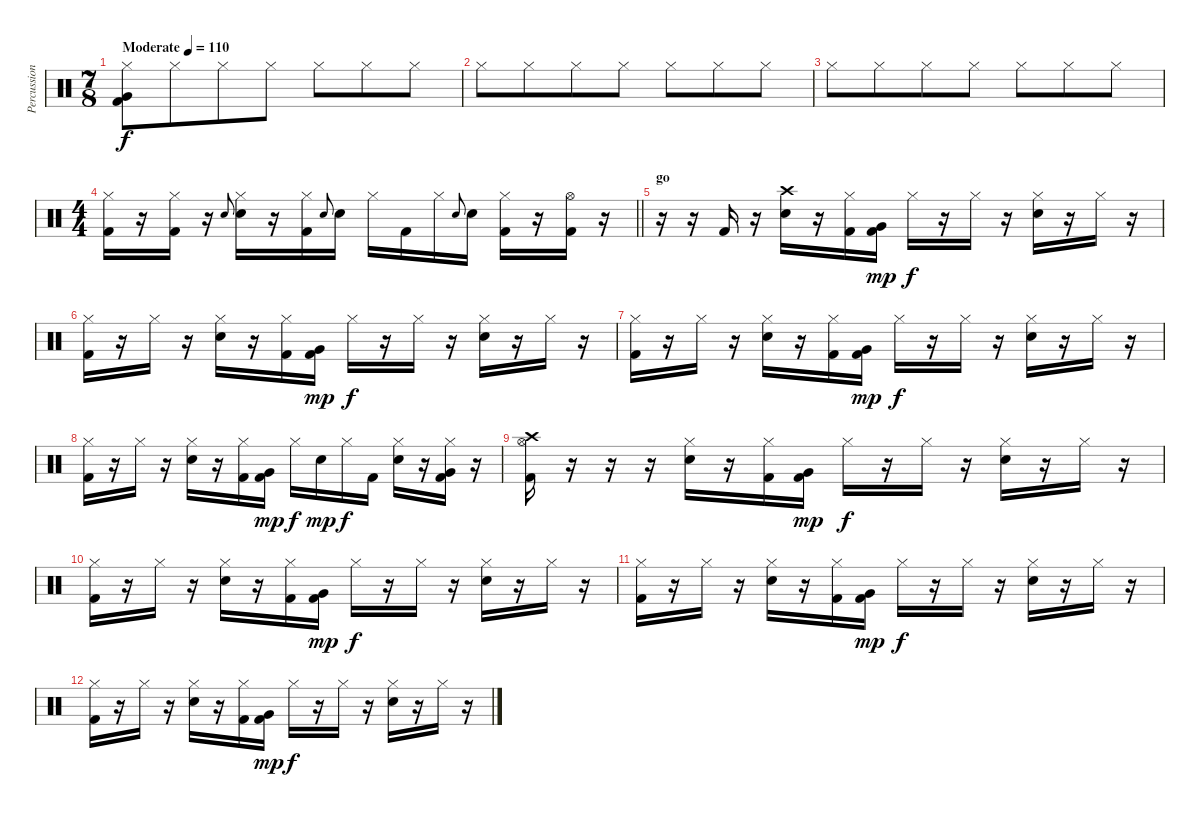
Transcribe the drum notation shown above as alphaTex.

\track ("Percussion" "Percussion") {instrument percussion}
\staff {score}
\articulation defaults
\ts (7 8)
\tempo (110 "Moderate")
\clef neutral
\ks c
("Hi-Hat (closed)" "Very Low Tom (hit)" "Kick (hit) 2").8{dy f} "Hi-Hat (closed)".8 "Hi-Hat (closed)".8 "Hi-Hat (closed)".8 "Hi-Hat (closed)".8 "Hi-Hat (closed)".8 "Hi-Hat (closed)".8 |
"Hi-Hat (closed)".8 "Hi-Hat (closed)".8 "Hi-Hat (closed)".8 "Hi-Hat (closed)".8 "Hi-Hat (closed)".8 "Hi-Hat (closed)".8 "Hi-Hat (closed)".8 |
"Hi-Hat (closed)".8 "Hi-Hat (closed)".8 "Hi-Hat (closed)".8 "Hi-Hat (closed)".8 "Hi-Hat (closed)".8 "Hi-Hat (closed)".8 "Hi-Hat (closed)".8 |
\ts (4 4)
\barLineRight lightlight
("Hi-Hat (closed)" "Kick (hit) 2").16 r.16 ("Hi-Hat (closed)" "Kick (hit) 2").16 r.16 "Electric Snare (hit)".8{gr onbeat} ("Hi-Hat (closed)" "Snare (hit) 2").16 r.16 ("Hi-Hat (closed)" "Kick (hit) 2").16 "Electric Snare (hit)".8{gr onbeat} "Snare (hit) 2".16 "Hi-Hat (closed)".16 "Kick (hit) 2".16 "Hi-Hat (closed)".16 "Electric Snare (hit)".8{gr onbeat} "Snare (hit) 2".16 ("Hi-Hat (closed)" "Kick (hit) 2").16 r.16 ("Hi-Hat (open)" "Kick (hit) 2").16 r.16 |
\section ("" "go")
r.16 r.16 "Kick (hit) 2".16 r.16 ("Crash high (hit)" "Electric Snare (hit)").16 r.16 ("Hi-Hat (closed)" "Kick (hit) 2").16 ("Very Low Tom (hit)" "Kick (hit) 2").16{dy mp} "Hi-Hat (closed)".16{dy f} r.16 "Hi-Hat (closed)".16 r.16 ("Hi-Hat (closed)" "Electric Snare (hit)").16 r.16 "Hi-Hat (closed)".16 r.16 |
("Hi-Hat (closed)" "Kick (hit) 2").16 r.16 "Hi-Hat (closed)".16 r.16 ("Hi-Hat (closed)" "Electric Snare (hit)").16 r.16 ("Hi-Hat (closed)" "Kick (hit) 2").16 ("Very Low Tom (hit)" "Kick (hit) 2").16{dy mp} "Hi-Hat (closed)".16{dy f} r.16 "Hi-Hat (closed)".16 r.16 ("Hi-Hat (closed)" "Electric Snare (hit)").16 r.16 "Hi-Hat (closed)".16 r.16 |
("Hi-Hat (closed)" "Kick (hit) 2").16 r.16 "Hi-Hat (closed)".16 r.16 ("Hi-Hat (closed)" "Electric Snare (hit)").16 r.16 ("Hi-Hat (closed)" "Kick (hit) 2").16 ("Very Low Tom (hit)" "Kick (hit) 2").16{dy mp} "Hi-Hat (closed)".16{dy f} r.16 "Hi-Hat (closed)".16 r.16 ("Hi-Hat (closed)" "Electric Snare (hit)").16 r.16 "Hi-Hat (closed)".16 r.16 |
("Hi-Hat (closed)" "Kick (hit) 2").16 r.16 "Hi-Hat (closed)".16 r.16 ("Hi-Hat (closed)" "Electric Snare (hit)").16 r.16 ("Hi-Hat (closed)" "Kick (hit) 2").16 ("Very Low Tom (hit)" "Kick (hit) 2").16{dy mp} "Hi-Hat (closed)".16{dy f} "Electric Snare (hit)".16{dy mp} "Hi-Hat (closed)".16{dy f} "Kick (hit) 2".16 ("Hi-Hat (closed)" "Electric Snare (hit)").16 r.16 ("Hi-Hat (closed)" "Very Low Tom (hit)" "Kick (hit) 2").16 r.16 |
("Crash high (hit)" "Hi-Hat (open)" "Kick (hit) 2").16 r.16 r.16 r.16 ("Hi-Hat (closed)" "Electric Snare (hit)").16 r.16 ("Hi-Hat (closed)" "Kick (hit) 2").16 ("Very Low Tom (hit)" "Kick (hit) 2").16{dy mp} "Hi-Hat (closed)".16{dy f} r.16 "Hi-Hat (closed)".16 r.16 ("Hi-Hat (closed)" "Electric Snare (hit)").16 r.16 "Hi-Hat (closed)".16 r.16 |
("Hi-Hat (closed)" "Kick (hit) 2").16 r.16 "Hi-Hat (closed)".16 r.16 ("Hi-Hat (closed)" "Electric Snare (hit)").16 r.16 ("Hi-Hat (closed)" "Kick (hit) 2").16 ("Very Low Tom (hit)" "Kick (hit) 2").16{dy mp} "Hi-Hat (closed)".16{dy f} r.16 "Hi-Hat (closed)".16 r.16 ("Hi-Hat (closed)" "Electric Snare (hit)").16 r.16 "Hi-Hat (closed)".16 r.16 |
("Hi-Hat (closed)" "Kick (hit) 2").16 r.16 "Hi-Hat (closed)".16 r.16 ("Hi-Hat (closed)" "Electric Snare (hit)").16 r.16 ("Hi-Hat (closed)" "Kick (hit) 2").16 ("Very Low Tom (hit)" "Kick (hit) 2").16{dy mp} "Hi-Hat (closed)".16{dy f} r.16 "Hi-Hat (closed)".16 r.16 ("Hi-Hat (closed)" "Electric Snare (hit)").16 r.16 "Hi-Hat (closed)".16 r.16 |
("Hi-Hat (closed)" "Kick (hit) 2").16 r.16 "Hi-Hat (closed)".16 r.16 ("Hi-Hat (closed)" "Electric Snare (hit)").16 r.16 ("Hi-Hat (closed)" "Kick (hit) 2").16 ("Very Low Tom (hit)" "Kick (hit) 2").16{dy mp} "Hi-Hat (closed)".16{dy f} r.16 "Hi-Hat (closed)".16 r.16 ("Hi-Hat (closed)" "Electric Snare (hit)").16 r.16 "Hi-Hat (closed)".16 r.16
